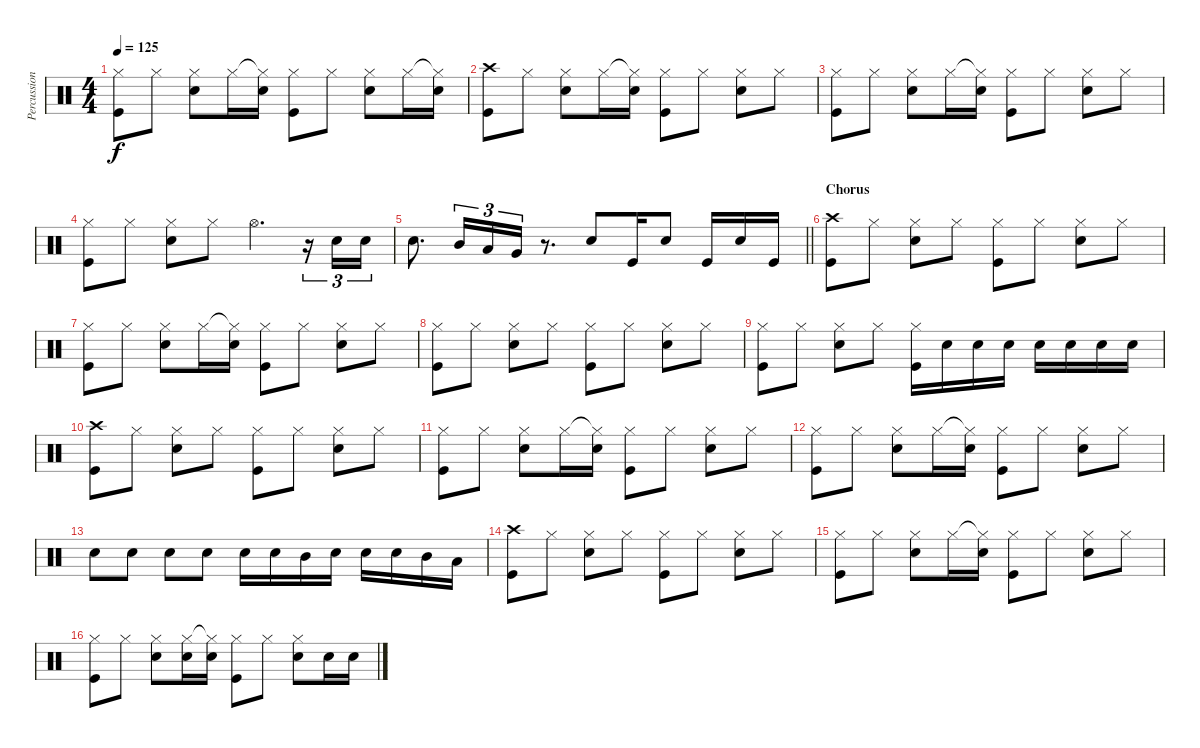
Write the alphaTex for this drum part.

\track ("Percussion" "Percussion") {instrument percussion}
\staff {score}
\articulation defaults
\ts (4 4)
\tempo 125
\clef neutral
\ks c
("Hi-Hat (closed)" "Kick (hit)").8{dy f} "Hi-Hat (closed)".8 ("Hi-Hat (closed)" "Snare (hit) 2").8 "Hi-Hat (closed)".16 ("Hi-Hat (closed)"{t} "Snare (hit) 2").16 ("Kick (hit)" "Hi-Hat (closed)").8 "Hi-Hat (closed)".8 ("Hi-Hat (closed)" "Snare (hit) 2").8 "Hi-Hat (closed)".16 ("Hi-Hat (closed)"{t} "Snare (hit) 2").16 |
("Crash high (hit)" "Kick (hit)").8 "Hi-Hat (closed)".8 ("Hi-Hat (closed)" "Snare (hit) 2").8 "Hi-Hat (closed)".16 ("Hi-Hat (closed)"{t} "Snare (hit) 2").16 ("Kick (hit)" "Hi-Hat (closed)").8 "Hi-Hat (closed)".8 ("Hi-Hat (closed)" "Snare (hit) 2").8 "Hi-Hat (closed)".8 |
("Hi-Hat (closed)" "Kick (hit)").8 "Hi-Hat (closed)".8 ("Hi-Hat (closed)" "Snare (hit) 2").8 "Hi-Hat (closed)".16 ("Hi-Hat (closed)"{t} "Snare (hit) 2").16 ("Kick (hit)" "Hi-Hat (closed)").8 "Hi-Hat (closed)".8 ("Hi-Hat (closed)" "Snare (hit) 2").8 "Hi-Hat (closed)".8 |
("Hi-Hat (closed)" "Kick (hit)").8 "Hi-Hat (closed)".8 ("Hi-Hat (closed)" "Snare (hit) 2").8 "Hi-Hat (closed)".8 "Hi-Hat (open)".4{d} r.16{tu (3 2)} "Snare (hit) 2".16{tu (3 2)} "Snare (hit) 2".16{tu (3 2)} |
\barLineRight lightlight "Snare (hit) 2".8{d} "Mid Tom (hit)".16{tu (3 2)} "Low Tom (hit)".16{tu (3 2)} "Very Low Tom (hit)".16{tu (3 2)}
r.8{d} "Snare (hit) 2".8 "Kick (hit)".16 "Snare (hit) 2".8 "Kick (hit)".16 "Snare (hit) 2".16 "Kick (hit)".16 |
\section ("" "Chorus")
("Crash high (hit)" "Kick (hit)").8 "Hi-Hat (closed)".8 ("Hi-Hat (closed)" "Snare (hit) 2").8 "Hi-Hat (closed)".8 ("Kick (hit)" "Hi-Hat (closed)").8 "Hi-Hat (closed)".8 ("Hi-Hat (closed)" "Snare (hit) 2").8 "Hi-Hat (closed)".8 |
("Hi-Hat (closed)" "Kick (hit)").8 "Hi-Hat (closed)".8 ("Hi-Hat (closed)" "Snare (hit) 2").8 "Hi-Hat (closed)".16 ("Hi-Hat (closed)"{t} "Snare (hit) 2").16 ("Kick (hit)" "Hi-Hat (closed)").8 "Hi-Hat (closed)".8 ("Hi-Hat (closed)" "Snare (hit) 2").8 "Hi-Hat (closed)".8 |
("Hi-Hat (closed)" "Kick (hit)").8 "Hi-Hat (closed)".8 ("Hi-Hat (closed)" "Snare (hit) 2").8 "Hi-Hat (closed)".8 ("Kick (hit)" "Hi-Hat (closed)").8 "Hi-Hat (closed)".8 ("Hi-Hat (closed)" "Snare (hit) 2").8 "Hi-Hat (closed)".8 |
("Hi-Hat (closed)" "Kick (hit)").8 "Hi-Hat (closed)".8 ("Hi-Hat (closed)" "Snare (hit) 2").8 "Hi-Hat (closed)".8 ("Kick (hit)" "Hi-Hat (closed)").16 "Snare (hit) 2".16 "Snare (hit) 2".16 "Snare (hit) 2".16 "Snare (hit) 2".16 "Snare (hit) 2".16 "Snare (hit) 2".16 "Snare (hit) 2".16 |
("Crash high (hit)" "Kick (hit)").8 "Hi-Hat (closed)".8 ("Hi-Hat (closed)" "Snare (hit) 2").8 "Hi-Hat (closed)".8 ("Kick (hit)" "Hi-Hat (closed)").8 "Hi-Hat (closed)".8 ("Hi-Hat (closed)" "Snare (hit) 2").8 "Hi-Hat (closed)".8 |
("Hi-Hat (closed)" "Kick (hit)").8 "Hi-Hat (closed)".8 ("Hi-Hat (closed)" "Snare (hit) 2").8 "Hi-Hat (closed)".16 ("Hi-Hat (closed)"{t} "Snare (hit) 2").16 ("Kick (hit)" "Hi-Hat (closed)").8 "Hi-Hat (closed)".8 ("Hi-Hat (closed)" "Snare (hit) 2").8 "Hi-Hat (closed)".8 |
("Hi-Hat (closed)" "Kick (hit)").8 "Hi-Hat (closed)".8 ("Hi-Hat (closed)" "Snare (hit) 2").8 "Hi-Hat (closed)".16 ("Hi-Hat (closed)"{t} "Snare (hit) 2").16 ("Kick (hit)" "Hi-Hat (closed)").8 "Hi-Hat (closed)".8 ("Hi-Hat (closed)" "Snare (hit) 2").8 "Hi-Hat (closed)".8 |
"Snare (hit) 2".8 "Snare (hit) 2".8 "Snare (hit) 2".8 "Snare (hit) 2".8 "Snare (hit) 2".16 "Snare (hit) 2".16 "Mid Tom (hit)".16 "Snare (hit) 2".16 "Snare (hit) 2".16 "Snare (hit) 2".16 "Mid Tom (hit)".16 "Low Tom (hit)".16 |
("Crash high (hit)" "Kick (hit)").8 "Hi-Hat (closed)".8 ("Hi-Hat (closed)" "Snare (hit) 2").8 "Hi-Hat (closed)".8 ("Kick (hit)" "Hi-Hat (closed)").8 "Hi-Hat (closed)".8 ("Hi-Hat (closed)" "Snare (hit) 2").8 "Hi-Hat (closed)".8 |
("Hi-Hat (closed)" "Kick (hit)").8 "Hi-Hat (closed)".8 ("Hi-Hat (closed)" "Snare (hit) 2").8 "Hi-Hat (closed)".16 ("Hi-Hat (closed)"{t} "Snare (hit) 2").16 ("Kick (hit)" "Hi-Hat (closed)").8 "Hi-Hat (closed)".8 ("Hi-Hat (closed)" "Snare (hit) 2").8 "Hi-Hat (closed)".8 |
("Hi-Hat (closed)" "Kick (hit)").8 "Hi-Hat (closed)".8 ("Hi-Hat (closed)" "Snare (hit) 2").8 ("Hi-Hat (closed)" "Snare (hit) 2").16 ("Hi-Hat (closed)"{t} "Snare (hit) 2").16 ("Kick (hit)" "Hi-Hat (closed)").8 "Hi-Hat (closed)".8 ("Hi-Hat (closed)" "Snare (hit) 2").8 "Snare (hit) 2".16 "Snare (hit) 2".16
